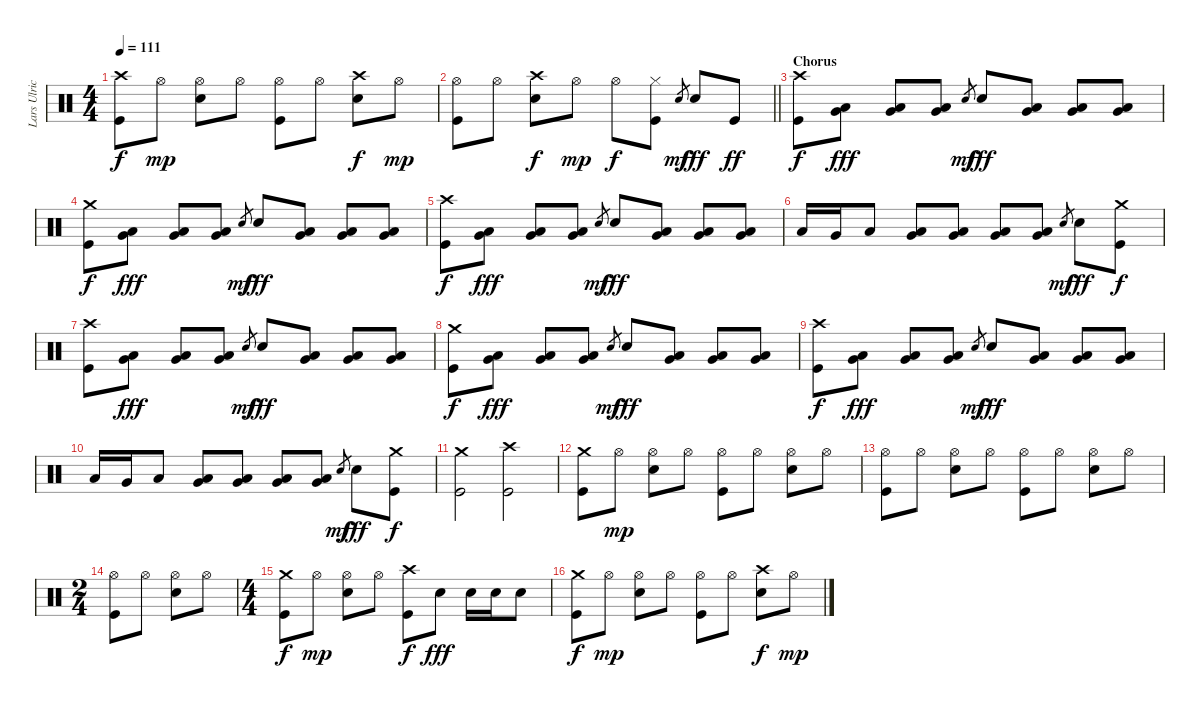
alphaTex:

\track ("Lars Ulrich (Drums)" "Lars Ulric") {instrument percussion}
\staff {score}
\articulation defaults
\ts (4 4)
\tempo 111
\clef neutral
\ks c
("Crash high (hit)" "Kick (hit)").8{dy f} "Hi-Hat (open)".8{dy mp} ("Hi-Hat (open)" "Snare (hit) 2").8 "Hi-Hat (open)".8 ("Hi-Hat (open)" "Kick (hit)").8 "Hi-Hat (open)".8 ("Crash high (hit)" "Snare (hit) 2").8{dy f} "Hi-Hat (open)".8{dy mp} |
\barLineRight lightlight
("Hi-Hat (open)" "Kick (hit)").8 "Hi-Hat (open)".8 ("Crash high (hit)" "Snare (hit) 2").8{dy f} "Hi-Hat (open)".8{dy mp} "Hi-Hat (open)".8{dy f} ("Hi-Hat (closed)" "Kick (hit)").8 "Snare (hit)".8{gr dy mf} "Snare (hit) 2".8{dy fff} "Kick (hit)".8{dy ff} |
\section ("" "Chorus")
("Crash high (hit)" "Kick (hit)").8{dy f} ("Low Tom (hit)" "Very Low Tom (hit)").8{dy fff} ("Low Tom (hit)" "Very Low Tom (hit)").8 ("Low Tom (hit)" "Very Low Tom (hit)").8 "Snare (hit)".8{gr dy mf} "Snare (hit) 2".8{dy fff} ("Low Tom (hit)" "Very Low Tom (hit)").8 ("Low Tom (hit)" "Very Low Tom (hit)").8 ("Very Low Tom (hit)" "Low Floor Tom (hit)").8 |
("Crash medium (hit)" "Kick (hit)").8{dy f} ("Low Tom (hit)" "Very Low Tom (hit)").8{dy fff} ("Low Tom (hit)" "Very Low Tom (hit)").8 ("Low Tom (hit)" "Very Low Tom (hit)").8 "Snare (hit)".8{gr dy mf} "Snare (hit) 2".8{dy fff} ("Low Tom (hit)" "Very Low Tom (hit)").8 ("Low Tom (hit)" "Very Low Tom (hit)").8 ("Very Low Tom (hit)" "Low Floor Tom (hit)").8 |
("Crash high (hit)" "Kick (hit)").8{dy f} ("Low Tom (hit)" "Very Low Tom (hit)").8{dy fff} ("Low Tom (hit)" "Very Low Tom (hit)").8 ("Low Tom (hit)" "Very Low Tom (hit)").8 "Snare (hit)".8{gr dy mf} "Snare (hit) 2".8{dy fff} ("Low Tom (hit)" "Very Low Tom (hit)").8 ("Low Tom (hit)" "Very Low Tom (hit)").8 ("Very Low Tom (hit)" "Low Floor Tom (hit)").8 |
"Low Tom (hit)".16 "Very Low Tom (hit)".16 "Low Floor Tom (hit)".8 ("Very Low Tom (hit)" "Low Floor Tom (hit)").8 ("Very Low Tom (hit)" "Low Floor Tom (hit)").8 ("Very Low Tom (hit)" "Low Floor Tom (hit)").8 ("Very Low Tom (hit)" "Low Floor Tom (hit)").8 "Snare (hit)".8{gr dy mf} "Snare (hit) 2".8{dy fff} ("Crash medium (hit)" "Kick (hit)").8{dy f} |
("Crash high (hit)" "Kick (hit)").8 ("Low Tom (hit)" "Very Low Tom (hit)").8{dy fff} ("Low Tom (hit)" "Very Low Tom (hit)").8 ("Low Tom (hit)" "Very Low Tom (hit)").8 "Snare (hit)".8{gr dy mf} "Snare (hit) 2".8{dy fff} ("Low Tom (hit)" "Very Low Tom (hit)").8 ("Low Tom (hit)" "Very Low Tom (hit)").8 ("Very Low Tom (hit)" "Low Floor Tom (hit)").8 |
("Crash medium (hit)" "Kick (hit)").8{dy f} ("Low Tom (hit)" "Very Low Tom (hit)").8{dy fff} ("Low Tom (hit)" "Very Low Tom (hit)").8 ("Low Tom (hit)" "Very Low Tom (hit)").8 "Snare (hit)".8{gr dy mf} "Snare (hit) 2".8{dy fff} ("Low Tom (hit)" "Very Low Tom (hit)").8 ("Low Tom (hit)" "Very Low Tom (hit)").8 ("Very Low Tom (hit)" "Low Floor Tom (hit)").8 |
("Crash high (hit)" "Kick (hit)").8{dy f} ("Low Tom (hit)" "Very Low Tom (hit)").8{dy fff} ("Low Tom (hit)" "Very Low Tom (hit)").8 ("Low Tom (hit)" "Very Low Tom (hit)").8 "Snare (hit)".8{gr dy mf} "Snare (hit) 2".8{dy fff} ("Low Tom (hit)" "Very Low Tom (hit)").8 ("Low Tom (hit)" "Very Low Tom (hit)").8 ("Very Low Tom (hit)" "Low Floor Tom (hit)").8 |
"Low Tom (hit)".16 "Very Low Tom (hit)".16 "Low Floor Tom (hit)".8 ("Very Low Tom (hit)" "Low Floor Tom (hit)").8 ("Very Low Tom (hit)" "Low Floor Tom (hit)").8 ("Very Low Tom (hit)" "Low Floor Tom (hit)").8 ("Very Low Tom (hit)" "Low Floor Tom (hit)").8 "Snare (hit)".8{gr dy mf} "Snare (hit) 2".8{dy fff} ("Crash medium (hit)" "Kick (hit)").8{dy f} |
("Crash medium (hit)" "Kick (hit)").2 ("Crash high (hit)" "Kick (hit)").2 |
("Crash medium (hit)" "Kick (hit)").8 "Hi-Hat (open)".8{dy mp} ("Hi-Hat (open)" "Snare (hit) 2").8 "Hi-Hat (open)".8 ("Hi-Hat (open)" "Kick (hit)").8 "Hi-Hat (open)".8 ("Hi-Hat (open)" "Snare (hit) 2").8 "Hi-Hat (open)".8 |
("Hi-Hat (open)" "Kick (hit)").8 "Hi-Hat (open)".8 ("Hi-Hat (open)" "Snare (hit) 2").8 "Hi-Hat (open)".8 ("Hi-Hat (open)" "Kick (hit)").8 "Hi-Hat (open)".8 ("Hi-Hat (open)" "Snare (hit) 2").8 "Hi-Hat (open)".8 |
\ts (2 4)
("Hi-Hat (open)" "Kick (hit)").8 "Hi-Hat (open)".8 ("Hi-Hat (open)" "Snare (hit) 2").8 "Hi-Hat (open)".8 |
\ts (4 4)
("Crash medium (hit)" "Kick (hit)").8{dy f} "Hi-Hat (open)".8{dy mp} ("Hi-Hat (open)" "Snare (hit) 2").8 "Hi-Hat (open)".8 ("Crash high (hit)" "Kick (hit)").8{dy f} "Snare (hit) 2".8{dy fff} "Snare (hit) 2".16 "Snare (hit) 2".16 "Snare (hit) 2".8 |
("Crash medium (hit)" "Kick (hit)").8{dy f} "Hi-Hat (open)".8{dy mp} ("Hi-Hat (open)" "Snare (hit) 2").8 "Hi-Hat (open)".8 ("Hi-Hat (open)" "Kick (hit)").8 "Hi-Hat (open)".8 ("Crash high (hit)" "Snare (hit) 2").8{dy f} "Hi-Hat (open)".8{dy mp}
